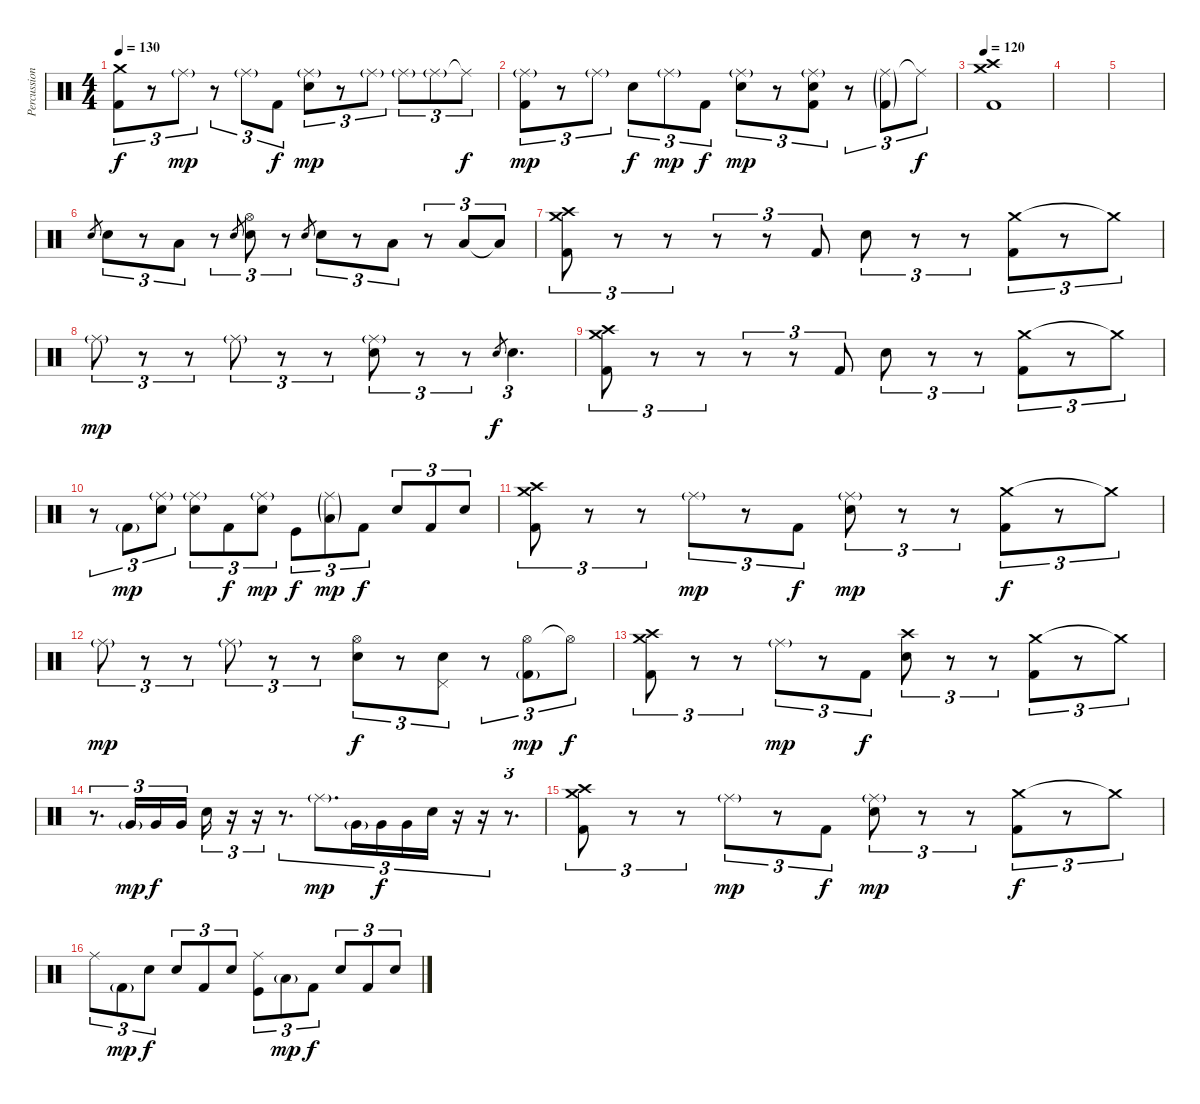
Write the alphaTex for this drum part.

\track ("Percussions" "Percussion") {instrument percussion}
\staff {score}
\articulation defaults
\ts (4 4)
\tempo 130
\clef neutral
\ks c
("Crash medium (hit)" "Kick (hit) 2").8{tu (3 2) dy f} r.8{tu (3 2)} "Ride (middle)"{g}.8{tu (3 2) dy mp} r.8{tu (3 2)} "Ride (middle)"{g}.8{tu (3 2)} "Kick (hit) 2".8{tu (3 2) dy f} ("Ride (middle)"{g} "Electric Snare (hit)").8{tu (3 2) dy mp} r.8{tu (3 2)} "Ride (middle)"{g}.8{tu (3 2)} "Ride (middle)"{g}.8{tu (3 2)} "Ride (middle)"{g}.8{tu (3 2)} "Ride (middle)"{t}.8{tu (3 2) dy f} |
("Ride (middle)"{g} "Kick (hit) 2").8{tu (3 2) dy mp} r.8{tu (3 2)} "Ride (middle)"{g}.8{tu (3 2)} "Electric Snare (hit)".8{tu (3 2) dy f} "Ride (middle)"{g}.8{tu (3 2) dy mp} "Kick (hit) 2".8{tu (3 2) dy f} ("Ride (middle)"{g} "Electric Snare (hit)").8{tu (3 2) dy mp} r.8{tu (3 2)} ("Ride (middle)"{g} "Electric Snare (hit)" "Kick (hit) 2").8{tu (3 2)} r.8{tu (3 2)} ("Ride (middle)"{g} "Kick (hit) 2"{g}).8{tu (3 2)} "Ride (middle)"{t}.8{tu (3 2) dy f} |
\tempo 120
("Crash medium (hit)" "Crash high (hit)" "Kick (hit) 2").1 |
|
|
"Electric Snare (hit)".8{gr} "Electric Snare (hit)".8{tu (3 2)} r.8{tu (3 2)} "Low Floor Tom (hit)".8{tu (3 2)} r.8{tu (3 2)} "Electric Snare (hit)".8{gr} ("Hi-Hat (open)" "Electric Snare (hit)").8{tu (3 2)} r.8{tu (3 2)} "Electric Snare (hit)".8{gr} "Electric Snare (hit)".8{tu (3 2)} r.8{tu (3 2)} "Low Floor Tom (hit)".8{tu (3 2)} r.8{tu (3 2)} "Low Floor Tom (hit)".8{tu (3 2)} "Low Floor Tom (hit)"{t}.8{tu (3 2)} |
("Crash medium (hit)" "Crash high (hit)" "Kick (hit) 2").8{tu (3 2)} r.8{tu (3 2)} r.8{tu (3 2)} r.8{tu (3 2)} r.8{tu (3 2)} "Kick (hit) 2".8{tu (3 2)} "Electric Snare (hit)".8{tu (3 2)} r.8{tu (3 2)} r.8{tu (3 2)} ("Crash medium (hit)" "Kick (hit) 2").8{tu (3 2)} r.8{tu (3 2)} "Crash medium (hit)"{t}.8{tu (3 2)} |
"Ride (middle)"{g}.8{tu (3 2) dy mp} r.8{tu (3 2)} r.8{tu (3 2)} "Ride (middle)"{g}.8{tu (3 2)} r.8{tu (3 2)} r.8{tu (3 2)} ("Ride (middle)"{g} "Electric Snare (hit)").8{tu (3 2)} r.8{tu (3 2)} r.8{tu (3 2)} "Electric Snare (hit)".8{gr dy f} "Electric Snare (hit)".4{d tu (3 2)} |
("Crash medium (hit)" "Crash high (hit)" "Kick (hit) 2").8{tu (3 2)} r.8{tu (3 2)} r.8{tu (3 2)} r.8{tu (3 2)} r.8{tu (3 2)} "Kick (hit) 2".8{tu (3 2)} "Electric Snare (hit)".8{tu (3 2)} r.8{tu (3 2)} r.8{tu (3 2)} ("Crash medium (hit)" "Kick (hit) 2").8{tu (3 2)} r.8{tu (3 2)} "Crash medium (hit)"{t}.8{tu (3 2)} |
r.8{tu (3 2)} "Kick (hit) 2"{g}.8{tu (3 2) dy mp} ("Ride (middle)"{g} "Electric Snare (hit)").8{tu (3 2)} ("Ride (middle)"{g} "Electric Snare (hit)").8{tu (3 2)} "Kick (hit) 2".8{tu (3 2) dy f} ("Ride (middle)"{g} "Electric Snare (hit)").8{tu (3 2) dy mp} "Kick (hit)".8{tu (3 2) dy f} ("Ride (middle)"{g} "Low Floor Tom (hit)"{g}).8{tu (3 2) dy mp} "Kick (hit) 2".8{tu (3 2) dy f} "Electric Snare (hit)".8{tu (3 2)} "Kick (hit) 2".8{tu (3 2)} "Electric Snare (hit)".8{tu (3 2)} |
("Crash medium (hit)" "Crash high (hit)" "Kick (hit) 2").8{tu (3 2)} r.8{tu (3 2)} r.8{tu (3 2)} "Ride (middle)"{g}.8{tu (3 2) dy mp} r.8{tu (3 2)} "Kick (hit) 2".8{tu (3 2) dy f} ("Ride (middle)"{g} "Electric Snare (hit)").8{tu (3 2) dy mp} r.8{tu (3 2)} r.8{tu (3 2)} ("Crash medium (hit)" "Kick (hit) 2").8{tu (3 2) dy f} r.8{tu (3 2)} "Crash medium (hit)"{t}.8{tu (3 2)} |
"Ride (middle)"{g}.8{tu (3 2) dy mp} r.8{tu (3 2)} r.8{tu (3 2)} "Ride (middle)"{g}.8{tu (3 2)} r.8{tu (3 2)} r.8{tu (3 2)} ("Hi-Hat (open)" "Electric Snare (hit)").8{tu (3 2) dy f} r.8{tu (3 2)} ("Pedal Hi-Hat (hit)" "Electric Snare (hit)").8{tu (3 2)} r.8{tu (3 2)} ("Hi-Hat (open)" "Kick (hit) 2"{g}).8{tu (3 2) dy mp} "Hi-Hat (open)"{t}.8{tu (3 2) dy f} |
("Crash medium (hit)" "Crash high (hit)" "Kick (hit) 2").8{tu (3 2)} r.8{tu (3 2)} r.8{tu (3 2)} "Ride (middle)"{g}.8{tu (3 2) dy mp} r.8{tu (3 2)} "Kick (hit) 2".8{tu (3 2) dy f} ("Crash high (hit)" "Electric Snare (hit)").8{tu (3 2)} r.8{tu (3 2)} r.8{tu (3 2)} ("Crash medium (hit)" "Kick (hit) 2").8{tu (3 2)} r.8{tu (3 2)} "Crash medium (hit)"{t}.8{tu (3 2)} |
r.8{d tu (3 2)} "Very Low Tom (hit)"{g}.16{tu (3 2) dy mp} "Very Low Tom (hit)".16{tu (3 2) dy f} "Very Low Tom (hit)".16{tu (3 2)} "Electric Snare (hit)".16{tu (3 2)} r.16{tu (3 2)} r.16{tu (3 2)} r.8{d tu (3 2)} "Ride (middle)"{g}.8{d tu (3 2) dy mp} "Very Low Tom (hit)"{g}.16{tu (3 2)} "Very Low Tom (hit)".16{tu (3 2) dy f} "Very Low Tom (hit)".16{tu (3 2)} "Electric Snare (hit)".16{tu (3 2)} r.16{tu (3 2)} r.16{tu (3 2)} r.8{d tu (3 2)} |
("Crash medium (hit)" "Crash high (hit)" "Kick (hit) 2").8{tu (3 2)} r.8{tu (3 2)} r.8{tu (3 2)} "Ride (middle)"{g}.8{tu (3 2) dy mp} r.8{tu (3 2)} "Kick (hit) 2".8{tu (3 2) dy f} ("Ride (middle)"{g} "Electric Snare (hit)").8{tu (3 2) dy mp} r.8{tu (3 2)} r.8{tu (3 2)} ("Crash medium (hit)" "Kick (hit) 2").8{tu (3 2) dy f} r.8{tu (3 2)} "Crash medium (hit)"{t}.8{tu (3 2)} |
"Ride (middle)".8{tu (3 2)} "Kick (hit) 2"{g}.8{tu (3 2) dy mp} "Electric Snare (hit)".8{tu (3 2) dy f} "Electric Snare (hit)".8{tu (3 2)} "Kick (hit) 2".8{tu (3 2)} "Electric Snare (hit)".8{tu (3 2)} ("Ride (middle)" "Kick (hit)").8{tu (3 2)} "Low Floor Tom (hit)"{g}.8{tu (3 2) dy mp} "Kick (hit) 2".8{tu (3 2) dy f} "Electric Snare (hit)".8{tu (3 2)} "Kick (hit) 2".8{tu (3 2)} "Electric Snare (hit)".8{tu (3 2)}
